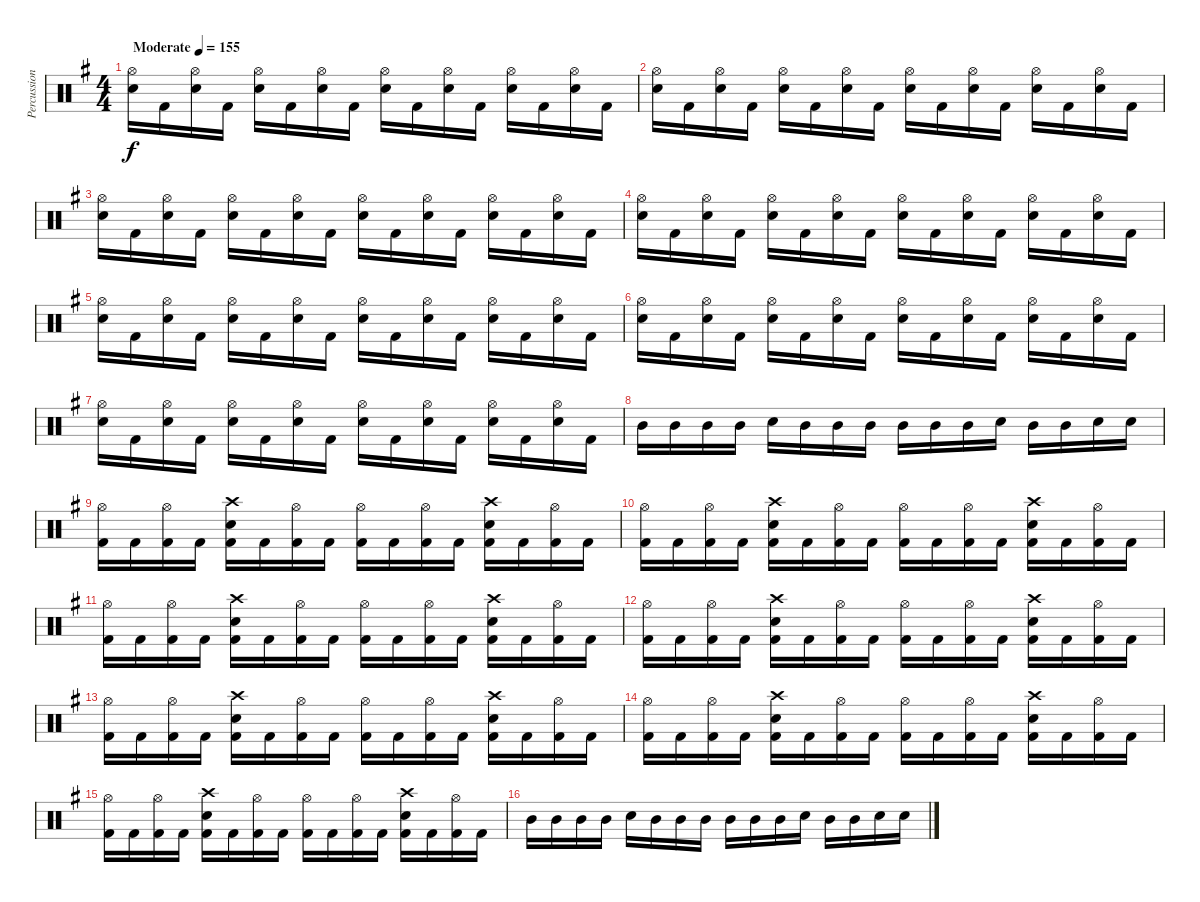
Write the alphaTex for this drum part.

\track ("Percussion" "Percussion") {instrument percussion}
\staff {score}
\articulation defaults
\ts (4 4)
\tempo (155 "Moderate")
\clef neutral
\ks eminor
("Hi-Hat (open)" "Electric Snare (hit)").16{dy f} "Kick (hit) 2".16 ("Hi-Hat (open)" "Electric Snare (hit)").16 "Kick (hit) 2".16 ("Hi-Hat (open)" "Electric Snare (hit)").16 "Kick (hit) 2".16 ("Hi-Hat (open)" "Electric Snare (hit)").16 "Kick (hit) 2".16 ("Hi-Hat (open)" "Electric Snare (hit)").16 "Kick (hit) 2".16 ("Hi-Hat (open)" "Electric Snare (hit)").16 "Kick (hit) 2".16 ("Hi-Hat (open)" "Electric Snare (hit)").16 "Kick (hit) 2".16 ("Hi-Hat (open)" "Electric Snare (hit)").16 "Kick (hit) 2".16 |
("Hi-Hat (open)" "Electric Snare (hit)").16 "Kick (hit) 2".16 ("Hi-Hat (open)" "Electric Snare (hit)").16 "Kick (hit) 2".16 ("Hi-Hat (open)" "Electric Snare (hit)").16 "Kick (hit) 2".16 ("Hi-Hat (open)" "Electric Snare (hit)").16 "Kick (hit) 2".16 ("Hi-Hat (open)" "Electric Snare (hit)").16 "Kick (hit) 2".16 ("Hi-Hat (open)" "Electric Snare (hit)").16 "Kick (hit) 2".16 ("Hi-Hat (open)" "Electric Snare (hit)").16 "Kick (hit) 2".16 ("Hi-Hat (open)" "Electric Snare (hit)").16 "Kick (hit) 2".16 |
("Hi-Hat (open)" "Electric Snare (hit)").16 "Kick (hit) 2".16 ("Hi-Hat (open)" "Electric Snare (hit)").16 "Kick (hit) 2".16 ("Hi-Hat (open)" "Electric Snare (hit)").16 "Kick (hit) 2".16 ("Hi-Hat (open)" "Electric Snare (hit)").16 "Kick (hit) 2".16 ("Hi-Hat (open)" "Electric Snare (hit)").16 "Kick (hit) 2".16 ("Hi-Hat (open)" "Electric Snare (hit)").16 "Kick (hit) 2".16 ("Hi-Hat (open)" "Electric Snare (hit)").16 "Kick (hit) 2".16 ("Hi-Hat (open)" "Electric Snare (hit)").16 "Kick (hit) 2".16 |
("Hi-Hat (open)" "Electric Snare (hit)").16 "Kick (hit) 2".16 ("Hi-Hat (open)" "Electric Snare (hit)").16 "Kick (hit) 2".16 ("Hi-Hat (open)" "Electric Snare (hit)").16 "Kick (hit) 2".16 ("Hi-Hat (open)" "Electric Snare (hit)").16 "Kick (hit) 2".16 ("Hi-Hat (open)" "Electric Snare (hit)").16 "Kick (hit) 2".16 ("Hi-Hat (open)" "Electric Snare (hit)").16 "Kick (hit) 2".16 ("Hi-Hat (open)" "Electric Snare (hit)").16 "Kick (hit) 2".16 ("Hi-Hat (open)" "Electric Snare (hit)").16 "Kick (hit) 2".16 |
("Hi-Hat (open)" "Electric Snare (hit)").16 "Kick (hit) 2".16 ("Hi-Hat (open)" "Electric Snare (hit)").16 "Kick (hit) 2".16 ("Hi-Hat (open)" "Electric Snare (hit)").16 "Kick (hit) 2".16 ("Hi-Hat (open)" "Electric Snare (hit)").16 "Kick (hit) 2".16 ("Hi-Hat (open)" "Electric Snare (hit)").16 "Kick (hit) 2".16 ("Hi-Hat (open)" "Electric Snare (hit)").16 "Kick (hit) 2".16 ("Hi-Hat (open)" "Electric Snare (hit)").16 "Kick (hit) 2".16 ("Hi-Hat (open)" "Electric Snare (hit)").16 "Kick (hit) 2".16 |
("Hi-Hat (open)" "Electric Snare (hit)").16 "Kick (hit) 2".16 ("Hi-Hat (open)" "Electric Snare (hit)").16 "Kick (hit) 2".16 ("Hi-Hat (open)" "Electric Snare (hit)").16 "Kick (hit) 2".16 ("Hi-Hat (open)" "Electric Snare (hit)").16 "Kick (hit) 2".16 ("Hi-Hat (open)" "Electric Snare (hit)").16 "Kick (hit) 2".16 ("Hi-Hat (open)" "Electric Snare (hit)").16 "Kick (hit) 2".16 ("Hi-Hat (open)" "Electric Snare (hit)").16 "Kick (hit) 2".16 ("Hi-Hat (open)" "Electric Snare (hit)").16 "Kick (hit) 2".16 |
("Hi-Hat (open)" "Electric Snare (hit)").16 "Kick (hit) 2".16 ("Hi-Hat (open)" "Electric Snare (hit)").16 "Kick (hit) 2".16 ("Hi-Hat (open)" "Electric Snare (hit)").16 "Kick (hit) 2".16 ("Hi-Hat (open)" "Electric Snare (hit)").16 "Kick (hit) 2".16 ("Hi-Hat (open)" "Electric Snare (hit)").16 "Kick (hit) 2".16 ("Hi-Hat (open)" "Electric Snare (hit)").16 "Kick (hit) 2".16 ("Hi-Hat (open)" "Electric Snare (hit)").16 "Kick (hit) 2".16 ("Hi-Hat (open)" "Electric Snare (hit)").16 "Kick (hit) 2".16 |
"Mid Tom (hit)".16 "Mid Tom (hit)".16 "Mid Tom (hit)".16 "Mid Tom (hit)".16 "Electric Snare (hit)".16 "Mid Tom (hit)".16 "Mid Tom (hit)".16 "Mid Tom (hit)".16 "Mid Tom (hit)".16 "Mid Tom (hit)".16 "Mid Tom (hit)".16 "Electric Snare (hit)".16 "Mid Tom (hit)".16 "Mid Tom (hit)".16 "Electric Snare (hit)".16 "Electric Snare (hit)".16 |
("Hi-Hat (open)" "Kick (hit) 2").16 "Kick (hit) 2".16 ("Hi-Hat (open)" "Kick (hit) 2").16 "Kick (hit) 2".16 ("Crash high (hit)" "Electric Snare (hit)" "Kick (hit) 2").16 "Kick (hit) 2".16 ("Hi-Hat (open)" "Kick (hit) 2").16 "Kick (hit) 2".16 ("Hi-Hat (open)" "Kick (hit) 2").16 "Kick (hit) 2".16 ("Hi-Hat (open)" "Kick (hit) 2").16 "Kick (hit) 2".16 ("Crash high (hit)" "Electric Snare (hit)" "Kick (hit) 2").16 "Kick (hit) 2".16 ("Hi-Hat (open)" "Kick (hit) 2").16 "Kick (hit) 2".16 |
("Hi-Hat (open)" "Kick (hit) 2").16 "Kick (hit) 2".16 ("Hi-Hat (open)" "Kick (hit) 2").16 "Kick (hit) 2".16 ("Crash high (hit)" "Electric Snare (hit)" "Kick (hit) 2").16 "Kick (hit) 2".16 ("Hi-Hat (open)" "Kick (hit) 2").16 "Kick (hit) 2".16 ("Hi-Hat (open)" "Kick (hit) 2").16 "Kick (hit) 2".16 ("Hi-Hat (open)" "Kick (hit) 2").16 "Kick (hit) 2".16 ("Crash high (hit)" "Electric Snare (hit)" "Kick (hit) 2").16 "Kick (hit) 2".16 ("Hi-Hat (open)" "Kick (hit) 2").16 "Kick (hit) 2".16 |
("Hi-Hat (open)" "Kick (hit) 2").16 "Kick (hit) 2".16 ("Hi-Hat (open)" "Kick (hit) 2").16 "Kick (hit) 2".16 ("Crash high (hit)" "Electric Snare (hit)" "Kick (hit) 2").16 "Kick (hit) 2".16 ("Hi-Hat (open)" "Kick (hit) 2").16 "Kick (hit) 2".16 ("Hi-Hat (open)" "Kick (hit) 2").16 "Kick (hit) 2".16 ("Hi-Hat (open)" "Kick (hit) 2").16 "Kick (hit) 2".16 ("Crash high (hit)" "Electric Snare (hit)" "Kick (hit) 2").16 "Kick (hit) 2".16 ("Hi-Hat (open)" "Kick (hit) 2").16 "Kick (hit) 2".16 |
("Hi-Hat (open)" "Kick (hit) 2").16 "Kick (hit) 2".16 ("Hi-Hat (open)" "Kick (hit) 2").16 "Kick (hit) 2".16 ("Crash high (hit)" "Electric Snare (hit)" "Kick (hit) 2").16 "Kick (hit) 2".16 ("Hi-Hat (open)" "Kick (hit) 2").16 "Kick (hit) 2".16 ("Hi-Hat (open)" "Kick (hit) 2").16 "Kick (hit) 2".16 ("Hi-Hat (open)" "Kick (hit) 2").16 "Kick (hit) 2".16 ("Crash high (hit)" "Electric Snare (hit)" "Kick (hit) 2").16 "Kick (hit) 2".16 ("Hi-Hat (open)" "Kick (hit) 2").16 "Kick (hit) 2".16 |
("Hi-Hat (open)" "Kick (hit) 2").16 "Kick (hit) 2".16 ("Hi-Hat (open)" "Kick (hit) 2").16 "Kick (hit) 2".16 ("Crash high (hit)" "Electric Snare (hit)" "Kick (hit) 2").16 "Kick (hit) 2".16 ("Hi-Hat (open)" "Kick (hit) 2").16 "Kick (hit) 2".16 ("Hi-Hat (open)" "Kick (hit) 2").16 "Kick (hit) 2".16 ("Hi-Hat (open)" "Kick (hit) 2").16 "Kick (hit) 2".16 ("Crash high (hit)" "Electric Snare (hit)" "Kick (hit) 2").16 "Kick (hit) 2".16 ("Hi-Hat (open)" "Kick (hit) 2").16 "Kick (hit) 2".16 |
("Hi-Hat (open)" "Kick (hit) 2").16 "Kick (hit) 2".16 ("Hi-Hat (open)" "Kick (hit) 2").16 "Kick (hit) 2".16 ("Crash high (hit)" "Electric Snare (hit)" "Kick (hit) 2").16 "Kick (hit) 2".16 ("Hi-Hat (open)" "Kick (hit) 2").16 "Kick (hit) 2".16 ("Hi-Hat (open)" "Kick (hit) 2").16 "Kick (hit) 2".16 ("Hi-Hat (open)" "Kick (hit) 2").16 "Kick (hit) 2".16 ("Crash high (hit)" "Electric Snare (hit)" "Kick (hit) 2").16 "Kick (hit) 2".16 ("Hi-Hat (open)" "Kick (hit) 2").16 "Kick (hit) 2".16 |
("Hi-Hat (open)" "Kick (hit) 2").16 "Kick (hit) 2".16 ("Hi-Hat (open)" "Kick (hit) 2").16 "Kick (hit) 2".16 ("Crash high (hit)" "Electric Snare (hit)" "Kick (hit) 2").16 "Kick (hit) 2".16 ("Hi-Hat (open)" "Kick (hit) 2").16 "Kick (hit) 2".16 ("Hi-Hat (open)" "Kick (hit) 2").16 "Kick (hit) 2".16 ("Hi-Hat (open)" "Kick (hit) 2").16 "Kick (hit) 2".16 ("Crash high (hit)" "Electric Snare (hit)" "Kick (hit) 2").16 "Kick (hit) 2".16 ("Hi-Hat (open)" "Kick (hit) 2").16 "Kick (hit) 2".16 |
"Mid Tom (hit)".16 "Mid Tom (hit)".16 "Mid Tom (hit)".16 "Mid Tom (hit)".16 "Electric Snare (hit)".16 "Mid Tom (hit)".16 "Mid Tom (hit)".16 "Mid Tom (hit)".16 "Mid Tom (hit)".16 "Mid Tom (hit)".16 "Mid Tom (hit)".16 "Electric Snare (hit)".16 "Mid Tom (hit)".16 "Mid Tom (hit)".16 "Electric Snare (hit)".16 "Electric Snare (hit)".16
